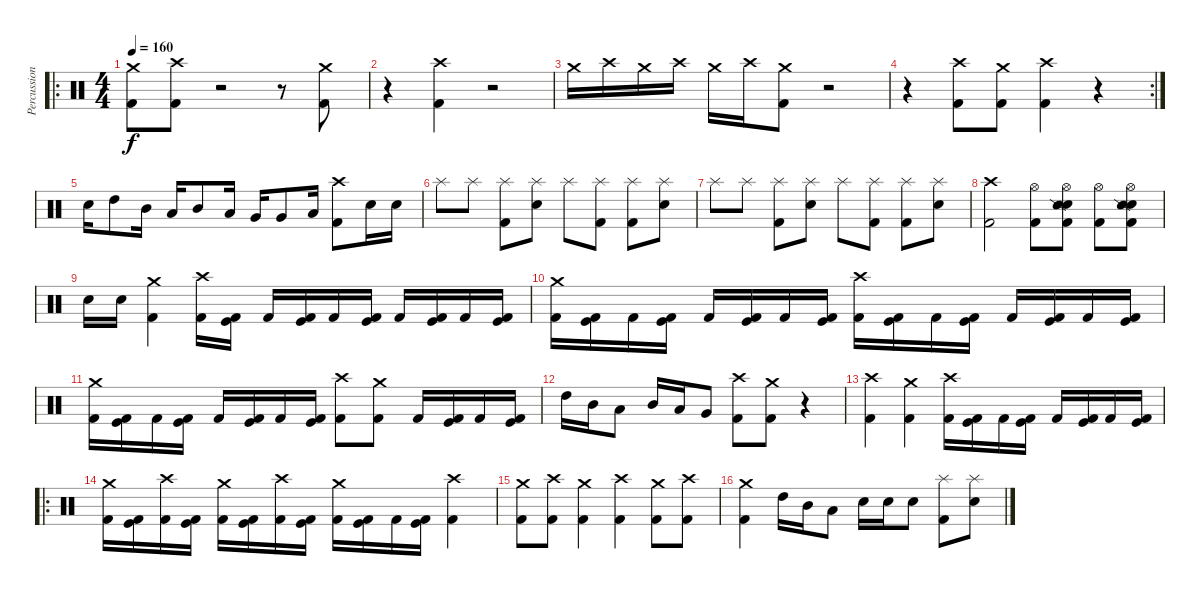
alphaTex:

\track ("Percussion" "Percussion") {instrument percussion}
\staff {score}
\articulation defaults
\ro
\ts (4 4)
\tempo 160
\clef neutral
\ks c
("Crash medium (hit)" "Kick (hit) 2").8{dy f} ("Crash high (hit)" "Kick (hit) 2").8 r.2 r.8 ("Crash medium (hit)" "Kick (hit) 2").8 |
r.4 ("Crash high (hit)" "Kick (hit) 2").4 r.2 |
"Crash medium (hit)".16 "Crash high (hit)".16 "Crash medium (hit)".16 "Crash high (hit)".16 "Crash medium (hit)".16 "Crash high (hit)".16 ("Crash medium (hit)" "Kick (hit) 2").8 r.2 |
\rc 2
r.4 ("Crash high (hit)" "Kick (hit) 2").8 ("Crash medium (hit)" "Kick (hit) 2").8 ("Crash high (hit)" "Kick (hit) 2").4 r.4 |
"Electric Snare (hit)".16 "High Tom (hit)".8 "Mid Tom (hit)".16 "Low Tom (hit)".16 "Mid Tom (hit)".8 "Low Tom (hit)".16 "Very Low Tom (hit)".16 "Very Low Tom (hit)".8 "Low Floor Tom (hit)".16 ("Crash high (hit)" "Kick (hit) 2").8 "Electric Snare (hit)".16 "Electric Snare (hit)".16 |
"Splash (hit)".8 "Splash (hit)".8 ("Splash (hit)" "Kick (hit) 2").8 ("Splash (hit)" "Electric Snare (hit)").8 "Splash (hit)".8 ("Splash (hit)" "Kick (hit) 2").8 ("Splash (hit)" "Kick (hit) 2").8 ("Splash (hit)" "Electric Snare (hit)").8 |
"Splash (hit)".8 "Splash (hit)".8 ("Splash (hit)" "Kick (hit) 2").8 ("Splash (hit)" "Electric Snare (hit)").8 "Splash (hit)".8 ("Splash (hit)" "Kick (hit) 2").8 ("Splash (hit)" "Kick (hit) 2").8 ("Splash (hit)" "Electric Snare (hit)").8 |
("Crash high (hit)" "Kick (hit) 2").2 ("Hi-Hat (open)" "Kick (hit) 2").8 ("Hi-Hat (open)" "Electric Snare (hit)" "Snare (side stick) 2" "Kick (hit) 2").8 ("Hi-Hat (open)" "Kick (hit) 2").8 ("Hi-Hat (open)" "Electric Snare (hit)" "Snare (side stick) 2" "Kick (hit) 2").8 |
"Electric Snare (hit)".16 "Electric Snare (hit)".16 ("Crash medium (hit)" "Kick (hit) 2").4 ("Crash high (hit)" "Kick (hit) 2").16 ("Kick (hit)" "Kick (hit) 2").16 "Kick (hit) 2".16 ("Kick (hit)" "Kick (hit) 2").16 "Kick (hit) 2".16 ("Kick (hit)" "Kick (hit) 2").16 "Kick (hit) 2".16 ("Kick (hit)" "Kick (hit) 2").16 "Kick (hit) 2".16 ("Kick (hit)" "Kick (hit) 2").16 |
("Crash medium (hit)" "Kick (hit) 2").16 ("Kick (hit)" "Kick (hit) 2").16 "Kick (hit) 2".16 ("Kick (hit)" "Kick (hit) 2").16 "Kick (hit) 2".16 ("Kick (hit)" "Kick (hit) 2").16 "Kick (hit) 2".16 ("Kick (hit)" "Kick (hit) 2").16 ("Crash high (hit)" "Kick (hit) 2").16 ("Kick (hit)" "Kick (hit) 2").16 "Kick (hit) 2".16 ("Kick (hit)" "Kick (hit) 2").16 "Kick (hit) 2".16 ("Kick (hit)" "Kick (hit) 2").16 "Kick (hit) 2".16 ("Kick (hit)" "Kick (hit) 2").16 |
("Crash medium (hit)" "Kick (hit) 2").16 ("Kick (hit)" "Kick (hit) 2").16 "Kick (hit) 2".16 ("Kick (hit)" "Kick (hit) 2").16 "Kick (hit) 2".16 ("Kick (hit)" "Kick (hit) 2").16 "Kick (hit) 2".16 ("Kick (hit)" "Kick (hit) 2").16 ("Crash high (hit)" "Kick (hit) 2").8 ("Crash medium (hit)" "Kick (hit) 2").8 "Kick (hit) 2".16 ("Kick (hit)" "Kick (hit) 2").16 "Kick (hit) 2".16 ("Kick (hit)" "Kick (hit) 2").16 |
"High Tom (hit)".16 "Mid Tom (hit)".16 "Low Tom (hit)".8 "Mid Tom (hit)".16 "Low Tom (hit)".16 "Very Low Tom (hit)".8 ("Crash high (hit)" "Kick (hit) 2").8 ("Crash medium (hit)" "Kick (hit) 2").8 r.4 |
("Crash high (hit)" "Kick (hit) 2").4 ("Crash medium (hit)" "Kick (hit) 2").4 ("Crash high (hit)" "Kick (hit) 2").16 ("Kick (hit)" "Kick (hit) 2").16 "Kick (hit) 2".16 ("Kick (hit)" "Kick (hit) 2").16 "Kick (hit) 2".16 ("Kick (hit)" "Kick (hit) 2").16 "Kick (hit) 2".16 ("Kick (hit)" "Kick (hit) 2").16 |
\ro
("Crash medium (hit)" "Kick (hit) 2").16 ("Kick (hit)" "Kick (hit) 2").16 ("Crash high (hit)" "Kick (hit) 2").16 ("Kick (hit)" "Kick (hit) 2").16 ("Crash medium (hit)" "Kick (hit) 2").16 ("Kick (hit)" "Kick (hit) 2").16 ("Crash high (hit)" "Kick (hit) 2").16 ("Kick (hit)" "Kick (hit) 2").16 ("Crash medium (hit)" "Kick (hit) 2").16 ("Kick (hit)" "Kick (hit) 2").16 "Kick (hit) 2".16 ("Kick (hit)" "Kick (hit) 2").16 ("Crash high (hit)" "Kick (hit) 2").4 |
("Crash medium (hit)" "Kick (hit) 2").8 ("Crash high (hit)" "Kick (hit) 2").8 ("Crash medium (hit)" "Kick (hit) 2").4 ("Crash high (hit)" "Kick (hit) 2").4 ("Crash medium (hit)" "Kick (hit) 2").8 ("Crash high (hit)" "Kick (hit) 2").8 |
("Crash medium (hit)" "Kick (hit) 2").4 "High Tom (hit)".16 "Mid Tom (hit)".16 "Low Tom (hit)".8 "Electric Snare (hit)".16 "Electric Snare (hit)".16 "Electric Snare (hit)".8 ("Splash (hit)" "Kick (hit) 2").8 ("Splash (hit)" "Electric Snare (hit)").8
